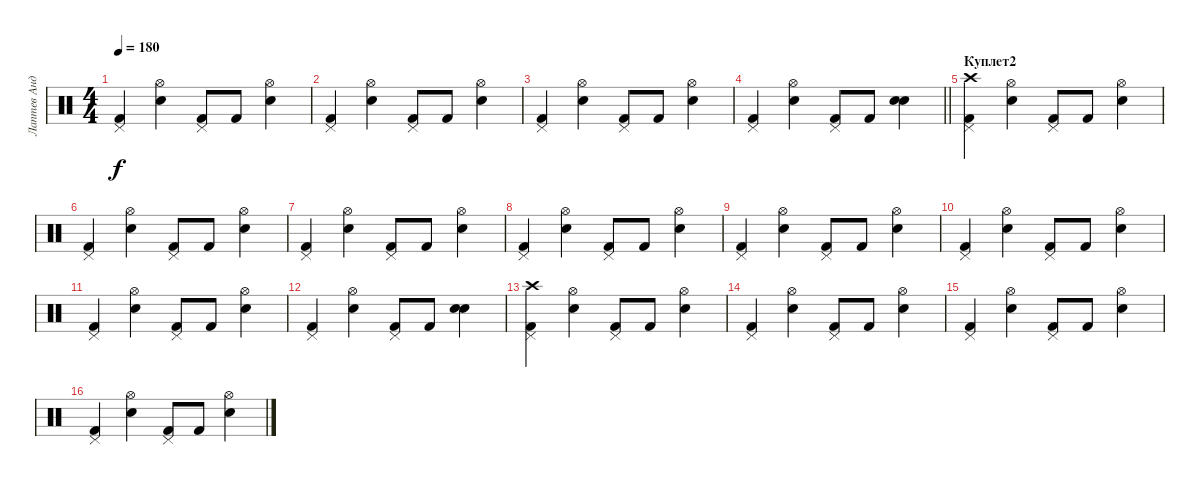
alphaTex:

\track ("Лаптев Андрей" "Лаптев Анд") {instrument percussion}
\staff {score}
\articulation defaults
\ts (4 4)
\tempo 180
\clef neutral
\ks c
("Kick (hit) 2" "Pedal Hi-Hat (hit)").4{dy f} ("Snare (hit) 2" "Hi-Hat (open)").4 ("Kick (hit) 2" "Pedal Hi-Hat (hit)").8 "Kick (hit) 2".8 ("Snare (hit) 2" "Hi-Hat (open)").4 |
("Kick (hit) 2" "Pedal Hi-Hat (hit)").4 ("Snare (hit) 2" "Hi-Hat (open)").4 ("Kick (hit) 2" "Pedal Hi-Hat (hit)").8 "Kick (hit) 2".8 ("Snare (hit) 2" "Hi-Hat (open)").4 |
("Kick (hit) 2" "Pedal Hi-Hat (hit)").4 ("Snare (hit) 2" "Hi-Hat (open)").4 ("Kick (hit) 2" "Pedal Hi-Hat (hit)").8 "Kick (hit) 2".8 ("Snare (hit) 2" "Hi-Hat (open)").4 |
\barLineRight lightlight
("Kick (hit) 2" "Pedal Hi-Hat (hit)").4 ("Snare (hit) 2" "Hi-Hat (open)").4 ("Kick (hit) 2" "Pedal Hi-Hat (hit)").8 "Kick (hit) 2".8 ("Snare (hit) 2" "Electric Snare (hit)").4 |
\section ("" "Куплет2")
("Kick (hit) 2" "Crash high (hit)" "Pedal Hi-Hat (hit)").4 ("Snare (hit) 2" "Hi-Hat (open)").4 ("Kick (hit) 2" "Pedal Hi-Hat (hit)").8 "Kick (hit) 2".8 ("Snare (hit) 2" "Hi-Hat (open)").4 |
("Kick (hit) 2" "Pedal Hi-Hat (hit)").4 ("Snare (hit) 2" "Hi-Hat (open)").4 ("Kick (hit) 2" "Pedal Hi-Hat (hit)").8 "Kick (hit) 2".8 ("Snare (hit) 2" "Hi-Hat (open)").4 |
("Kick (hit) 2" "Pedal Hi-Hat (hit)").4 ("Snare (hit) 2" "Hi-Hat (open)").4 ("Kick (hit) 2" "Pedal Hi-Hat (hit)").8 "Kick (hit) 2".8 ("Snare (hit) 2" "Hi-Hat (open)").4 |
("Kick (hit) 2" "Pedal Hi-Hat (hit)").4 ("Snare (hit) 2" "Hi-Hat (open)").4 ("Kick (hit) 2" "Pedal Hi-Hat (hit)").8 "Kick (hit) 2".8 ("Snare (hit) 2" "Hi-Hat (open)").4 |
("Kick (hit) 2" "Pedal Hi-Hat (hit)").4 ("Snare (hit) 2" "Hi-Hat (open)").4 ("Kick (hit) 2" "Pedal Hi-Hat (hit)").8 "Kick (hit) 2".8 ("Snare (hit) 2" "Hi-Hat (open)").4 |
("Kick (hit) 2" "Pedal Hi-Hat (hit)").4 ("Snare (hit) 2" "Hi-Hat (open)").4 ("Kick (hit) 2" "Pedal Hi-Hat (hit)").8 "Kick (hit) 2".8 ("Snare (hit) 2" "Hi-Hat (open)").4 |
("Kick (hit) 2" "Pedal Hi-Hat (hit)").4 ("Snare (hit) 2" "Hi-Hat (open)").4 ("Kick (hit) 2" "Pedal Hi-Hat (hit)").8 "Kick (hit) 2".8 ("Snare (hit) 2" "Hi-Hat (open)").4 |
("Kick (hit) 2" "Pedal Hi-Hat (hit)").4 ("Snare (hit) 2" "Hi-Hat (open)").4 ("Kick (hit) 2" "Pedal Hi-Hat (hit)").8 "Kick (hit) 2".8 ("Snare (hit) 2" "Electric Snare (hit)").4 |
("Kick (hit) 2" "Crash high (hit)" "Pedal Hi-Hat (hit)").4 ("Snare (hit) 2" "Hi-Hat (open)").4 ("Kick (hit) 2" "Pedal Hi-Hat (hit)").8 "Kick (hit) 2".8 ("Snare (hit) 2" "Hi-Hat (open)").4 |
("Kick (hit) 2" "Pedal Hi-Hat (hit)").4 ("Snare (hit) 2" "Hi-Hat (open)").4 ("Kick (hit) 2" "Pedal Hi-Hat (hit)").8 "Kick (hit) 2".8 ("Snare (hit) 2" "Hi-Hat (open)").4 |
("Kick (hit) 2" "Pedal Hi-Hat (hit)").4 ("Snare (hit) 2" "Hi-Hat (open)").4 ("Kick (hit) 2" "Pedal Hi-Hat (hit)").8 "Kick (hit) 2".8 ("Snare (hit) 2" "Hi-Hat (open)").4 |
("Kick (hit) 2" "Pedal Hi-Hat (hit)").4 ("Snare (hit) 2" "Hi-Hat (open)").4 ("Kick (hit) 2" "Pedal Hi-Hat (hit)").8 "Kick (hit) 2".8 ("Snare (hit) 2" "Hi-Hat (open)").4
